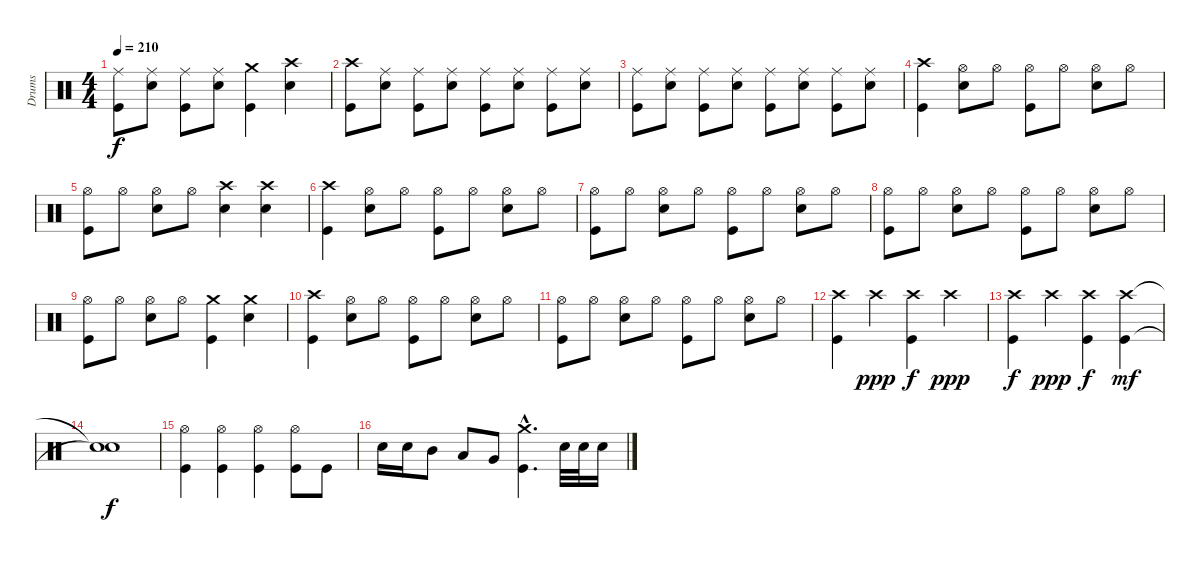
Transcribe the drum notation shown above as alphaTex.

\track ("Drums" "Drums") {instrument percussion}
\staff {score}
\articulation defaults
\ts (4 4)
\tempo 210
\clef neutral
\ks c
("Ride (middle)" "Kick (hit)").8{dy f} ("Ride (middle)" "Electric Snare (hit)").8 ("Ride (middle)" "Kick (hit)").8 ("Ride (middle)" "Electric Snare (hit)").8 ("Crash medium (hit)" "Kick (hit)").4 ("Crash high (hit)" "Electric Snare (hit)").4 |
("Crash high (hit)" "Kick (hit)").8 ("Ride (middle)" "Electric Snare (hit)").8 ("Ride (middle)" "Kick (hit)").8 ("Ride (middle)" "Electric Snare (hit)").8 ("Ride (middle)" "Kick (hit)").8 ("Ride (middle)" "Electric Snare (hit)").8 ("Ride (middle)" "Kick (hit)").8 ("Ride (middle)" "Electric Snare (hit)").8 |
("Ride (middle)" "Kick (hit)").8 ("Ride (middle)" "Electric Snare (hit)").8 ("Ride (middle)" "Kick (hit)").8 ("Ride (middle)" "Electric Snare (hit)").8 ("Ride (middle)" "Kick (hit)").8 ("Ride (middle)" "Electric Snare (hit)").8 ("Ride (middle)" "Kick (hit)").8 ("Ride (middle)" "Electric Snare (hit)").8 |
("Crash high (hit)" "Kick (hit)").4 ("Hi-Hat (open)" "Electric Snare (hit)").8 "Hi-Hat (open)".8 ("Hi-Hat (open)" "Kick (hit)").8 "Hi-Hat (open)".8 ("Hi-Hat (open)" "Electric Snare (hit)").8 "Hi-Hat (open)".8 |
("Hi-Hat (open)" "Kick (hit)").8 "Hi-Hat (open)".8 ("Hi-Hat (open)" "Electric Snare (hit)").8 "Hi-Hat (open)".8 ("Crash high (hit)" "Electric Snare (hit)").4 ("Crash high (hit)" "Electric Snare (hit)").4 |
("Crash high (hit)" "Kick (hit)").4 ("Hi-Hat (open)" "Electric Snare (hit)").8 "Hi-Hat (open)".8 ("Hi-Hat (open)" "Kick (hit)").8 "Hi-Hat (open)".8 ("Hi-Hat (open)" "Electric Snare (hit)").8 "Hi-Hat (open)".8 |
("Hi-Hat (open)" "Kick (hit)").8 "Hi-Hat (open)".8 ("Hi-Hat (open)" "Electric Snare (hit)").8 "Hi-Hat (open)".8 ("Hi-Hat (open)" "Kick (hit)").8 "Hi-Hat (open)".8 ("Hi-Hat (open)" "Electric Snare (hit)").8 "Hi-Hat (open)".8 |
("Hi-Hat (open)" "Kick (hit)").8 "Hi-Hat (open)".8 ("Hi-Hat (open)" "Electric Snare (hit)").8 "Hi-Hat (open)".8 ("Hi-Hat (open)" "Kick (hit)").8 "Hi-Hat (open)".8 ("Hi-Hat (open)" "Electric Snare (hit)").8 "Hi-Hat (open)".8 |
("Hi-Hat (open)" "Kick (hit)").8 "Hi-Hat (open)".8 ("Hi-Hat (open)" "Electric Snare (hit)").8 "Hi-Hat (open)".8 ("Crash medium (hit)" "Kick (hit)").4 ("Crash medium (hit)" "Electric Snare (hit)").4 |
("Crash high (hit)" "Kick (hit)").4 ("Hi-Hat (open)" "Electric Snare (hit)").8 "Hi-Hat (open)".8 ("Hi-Hat (open)" "Kick (hit)").8 "Hi-Hat (open)".8 ("Hi-Hat (open)" "Electric Snare (hit)").8 "Hi-Hat (open)".8 |
("Hi-Hat (open)" "Kick (hit)").8 "Hi-Hat (open)".8 ("Hi-Hat (open)" "Electric Snare (hit)").8 "Hi-Hat (open)".8 ("Hi-Hat (open)" "Kick (hit)").8 "Hi-Hat (open)".8 ("Hi-Hat (open)" "Electric Snare (hit)").8 "Hi-Hat (open)".8 |
("Crash high (hit)" "Kick (hit)").4 "Crash high (hit)".4{dy ppp} ("Crash high (hit)" "Kick (hit)").4{dy f} "Crash high (hit)".4{dy ppp} |
("Crash high (hit)" "Kick (hit)").4{dy f} "Crash high (hit)".4{dy ppp} ("Crash high (hit)" "Kick (hit)").4{dy f} ("Crash high (hit)" "Kick (hit)").4{dy mf} |
("Snare (hit)"{t} "Snare (hit)"{t}).1{dy f} |
("Hi-Hat (open)" "Kick (hit)").4 ("Hi-Hat (open)" "Kick (hit)").4 ("Hi-Hat (open)" "Kick (hit)").4 ("Hi-Hat (open)" "Kick (hit)").8 "Kick (hit)".8 |
"Electric Snare (hit)".16 "Electric Snare (hit)".16 "Mid Tom (hit)".8 "Low Tom (hit)".8 "Very Low Tom (hit)".8 ("Crash medium (hit)"{hac} "Kick (hit)"{hac}).4{d} "Electric Snare (hit)".32 "Electric Snare (hit)".32 "Electric Snare (hit)".16
